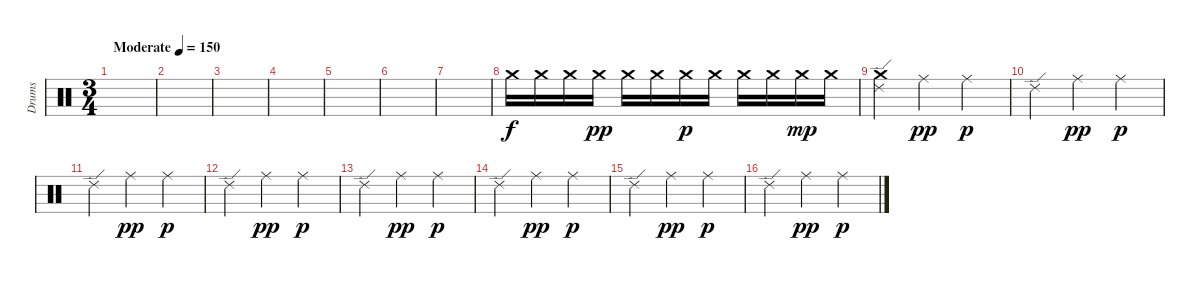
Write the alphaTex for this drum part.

\track ("Drums" "Drums") {instrument percussion}
\staff {score}
\articulation defaults
\ts (3 4)
\tempo (150 "Moderate")
\clef neutral
\ks c
|
|
|
|
|
|
|
"Crash medium (hit)".16 "Crash medium (hit)".16 "Crash medium (hit)".16 "Crash medium (hit)".16{dy pp} "Crash medium (hit)".16 "Crash medium (hit)".16 "Crash medium (hit)".16{dy p} "Crash medium (hit)".16 "Crash medium (hit)".16 "Crash medium (hit)".16 "Crash medium (hit)".16{dy mp} "Crash medium (hit)".16 |
("Crash medium (hit)" "Ride (edge) 2").4 "Ride (middle)".4{dy pp} "Ride (middle)".4{dy p} |
"Ride (edge) 2".4 "Ride (middle)".4{dy pp} "Ride (middle)".4{dy p} |
"Ride (edge) 2".4 "Ride (middle)".4{dy pp} "Ride (middle)".4{dy p} |
"Ride (edge) 2".4 "Ride (middle)".4{dy pp} "Ride (middle)".4{dy p} |
"Ride (edge) 2".4 "Ride (middle)".4{dy pp} "Ride (middle)".4{dy p} |
"Ride (edge) 2".4 "Ride (middle)".4{dy pp} "Ride (middle)".4{dy p} |
"Ride (edge) 2".4 "Ride (middle)".4{dy pp} "Ride (middle)".4{dy p} |
"Ride (edge) 2".4 "Ride (middle)".4{dy pp} "Ride (middle)".4{dy p}
